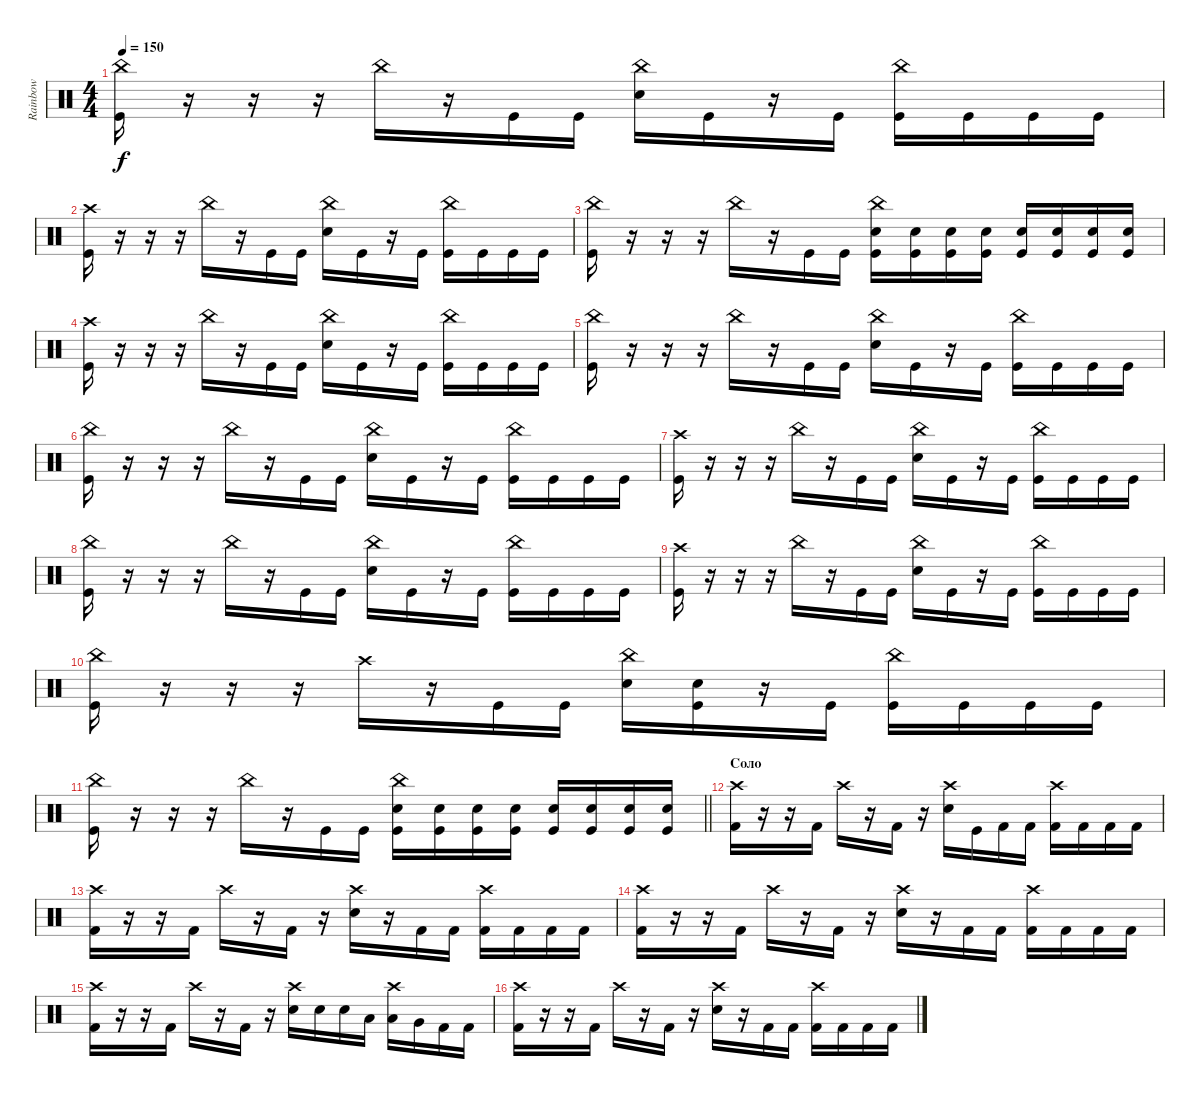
\track ("Rainbow" "Rainbow") {instrument percussion}
\staff {score}
\articulation defaults
\ts (4 4)
\tempo 150
\clef neutral
\ks c
("China (hit)" "Kick (hit)").16{dy f} r.16 r.16 r.16 "China (hit)".16 r.16 "Kick (hit)".16 "Kick (hit)".16 ("China (hit)" "Electric Snare (hit)").16 "Kick (hit)".16 r.16 "Kick (hit)".16 ("China (hit)" "Kick (hit)").16 "Kick (hit)".16 "Kick (hit)".16 "Kick (hit)".16 |
("Crash high (hit)" "Kick (hit)").16 r.16 r.16 r.16 "China (hit)".16 r.16 "Kick (hit)".16 "Kick (hit)".16 ("China (hit)" "Electric Snare (hit)").16 "Kick (hit)".16 r.16 "Kick (hit)".16 ("China (hit)" "Kick (hit)").16 "Kick (hit)".16 "Kick (hit)".16 "Kick (hit)".16 |
("China (hit)" "Kick (hit)").16 r.16 r.16 r.16 "China (hit)".16 r.16 "Kick (hit)".16 "Kick (hit)".16 ("China (hit)" "Electric Snare (hit)" "Kick (hit)").16 ("Electric Snare (hit)" "Kick (hit)").16 ("Electric Snare (hit)" "Kick (hit)").16 ("Electric Snare (hit)" "Kick (hit)").16 ("Electric Snare (hit)" "Kick (hit)").16 ("Electric Snare (hit)" "Kick (hit)").16 ("Electric Snare (hit)" "Kick (hit)").16 ("Electric Snare (hit)" "Kick (hit)").16 |
("Crash high (hit)" "Kick (hit)").16 r.16 r.16 r.16 "China (hit)".16 r.16 "Kick (hit)".16 "Kick (hit)".16 ("China (hit)" "Electric Snare (hit)").16 "Kick (hit)".16 r.16 "Kick (hit)".16 ("China (hit)" "Kick (hit)").16 "Kick (hit)".16 "Kick (hit)".16 "Kick (hit)".16 |
("China (hit)" "Kick (hit)").16 r.16 r.16 r.16 "China (hit)".16 r.16 "Kick (hit)".16 "Kick (hit)".16 ("China (hit)" "Electric Snare (hit)").16 "Kick (hit)".16 r.16 "Kick (hit)".16 ("China (hit)" "Kick (hit)").16 "Kick (hit)".16 "Kick (hit)".16 "Kick (hit)".16 |
("China (hit)" "Kick (hit)").16 r.16 r.16 r.16 "China (hit)".16 r.16 "Kick (hit)".16 "Kick (hit)".16 ("China (hit)" "Electric Snare (hit)").16 "Kick (hit)".16 r.16 "Kick (hit)".16 ("China (hit)" "Kick (hit)").16 "Kick (hit)".16 "Kick (hit)".16 "Kick (hit)".16 |
("Crash high (hit)" "Kick (hit)").16 r.16 r.16 r.16 "China (hit)".16 r.16 "Kick (hit)".16 "Kick (hit)".16 ("China (hit)" "Electric Snare (hit)").16 "Kick (hit)".16 r.16 "Kick (hit)".16 ("China (hit)" "Kick (hit)").16 "Kick (hit)".16 "Kick (hit)".16 "Kick (hit)".16 |
("China (hit)" "Kick (hit)").16 r.16 r.16 r.16 "China (hit)".16 r.16 "Kick (hit)".16 "Kick (hit)".16 ("China (hit)" "Electric Snare (hit)").16 "Kick (hit)".16 r.16 "Kick (hit)".16 ("China (hit)" "Kick (hit)").16 "Kick (hit)".16 "Kick (hit)".16 "Kick (hit)".16 |
("Crash high (hit)" "Kick (hit)").16 r.16 r.16 r.16 "China (hit)".16 r.16 "Kick (hit)".16 "Kick (hit)".16 ("China (hit)" "Electric Snare (hit)").16 "Kick (hit)".16 r.16 "Kick (hit)".16 ("China (hit)" "Kick (hit)").16 "Kick (hit)".16 "Kick (hit)".16 "Kick (hit)".16 |
("China (hit)" "Kick (hit)").16 r.16 r.16 r.16 "Crash high (hit)".16 r.16 "Kick (hit)".16 "Kick (hit)".16 ("China (hit)" "Electric Snare (hit)").16 ("Snare (hit)" "Kick (hit)").16 r.16 "Kick (hit)".16 ("China (hit)" "Kick (hit)").16 "Kick (hit)".16 "Kick (hit)".16 "Kick (hit)".16 |
\barLineRight lightlight
("China (hit)" "Kick (hit)").16 r.16 r.16 r.16 "China (hit)".16 r.16 "Kick (hit)".16 "Kick (hit)".16 ("China (hit)" "Electric Snare (hit)" "Kick (hit)").16 ("Electric Snare (hit)" "Kick (hit)").16 ("Electric Snare (hit)" "Kick (hit)").16 ("Electric Snare (hit)" "Kick (hit)").16 ("Electric Snare (hit)" "Kick (hit)").16 ("Electric Snare (hit)" "Kick (hit)").16 ("Electric Snare (hit)" "Kick (hit)").16 ("Electric Snare (hit)" "Kick (hit)").16 |
\section ("" "Соло")
("Crash high (hit)" "Kick (hit) 2").16 r.16 r.16 "Kick (hit) 2".16 "Crash high (hit)".16 r.16 "Kick (hit) 2".16 r.16 ("Crash high (hit)" "Electric Snare (hit)").16 "Kick (hit)".16 "Kick (hit) 2".16 "Kick (hit) 2".16 ("Crash high (hit)" "Kick (hit) 2").16 "Kick (hit) 2".16 "Kick (hit) 2".16 "Kick (hit) 2".16 |
("Crash high (hit)" "Kick (hit) 2").16 r.16 r.16 "Kick (hit) 2".16 "Crash high (hit)".16 r.16 "Kick (hit) 2".16 r.16 ("Crash high (hit)" "Electric Snare (hit)").16 r.16 "Kick (hit) 2".16 "Kick (hit) 2".16 ("Crash high (hit)" "Kick (hit) 2").16 "Kick (hit) 2".16 "Kick (hit) 2".16 "Kick (hit) 2".16 |
("Crash high (hit)" "Kick (hit) 2").16 r.16 r.16 "Kick (hit) 2".16 "Crash high (hit)".16 r.16 "Kick (hit) 2".16 r.16 ("Crash high (hit)" "Electric Snare (hit)").16 r.16 "Kick (hit) 2".16 "Kick (hit) 2".16 ("Crash high (hit)" "Kick (hit) 2").16 "Kick (hit) 2".16 "Kick (hit) 2".16 "Kick (hit) 2".16 |
("Crash high (hit)" "Kick (hit) 2").16 r.16 r.16 "Kick (hit) 2".16 "Crash high (hit)".16 r.16 "Kick (hit) 2".16 r.16 ("Crash high (hit)" "Electric Snare (hit)").16 "Electric Snare (hit)".16 "Electric Snare (hit)".16 "Low Tom (hit)".16 ("Crash high (hit)" "Low Tom (hit)").16 "Very Low Tom (hit)".16 "Kick (hit) 2".16 "Kick (hit) 2".16 |
("Crash high (hit)" "Kick (hit) 2").16 r.16 r.16 "Kick (hit) 2".16 "Crash high (hit)".16 r.16 "Kick (hit) 2".16 r.16 ("Crash high (hit)" "Electric Snare (hit)").16 r.16 "Kick (hit) 2".16 "Kick (hit) 2".16 ("Crash high (hit)" "Kick (hit) 2").16 "Kick (hit) 2".16 "Kick (hit) 2".16 "Kick (hit) 2".16
